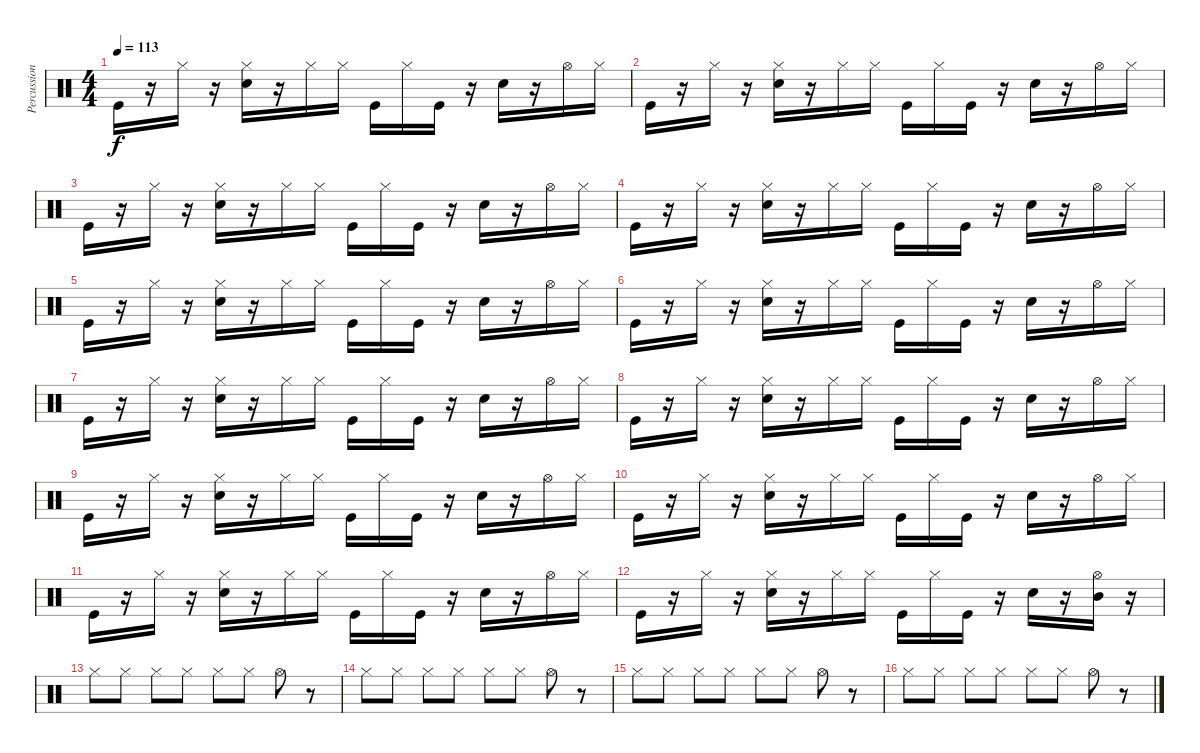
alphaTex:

\track ("Percussioni" "Percussion") {instrument percussion}
\staff {score}
\articulation defaults
\ts (4 4)
\tempo 113
\clef neutral
\ks c "Kick (hit)".16{dy f}
r.16 "Hi-Hat (closed)".16 r.16 ("Hi-Hat (closed)" "Electric Snare (hit)").16 r.16 "Hi-Hat (closed)".16 "Hi-Hat (closed)".16 "Kick (hit)".16 "Hi-Hat (closed)".16 "Kick (hit)".16 r.16 "Electric Snare (hit)".16 r.16 "Hi-Hat (open)".16 "Hi-Hat (closed)".16 |
"Kick (hit)".16 r.16 "Hi-Hat (closed)".16 r.16 ("Hi-Hat (closed)" "Electric Snare (hit)").16 r.16 "Hi-Hat (closed)".16 "Hi-Hat (closed)".16 "Kick (hit)".16 "Hi-Hat (closed)".16 "Kick (hit)".16 r.16 "Electric Snare (hit)".16 r.16 "Hi-Hat (open)".16 "Hi-Hat (closed)".16 |
"Kick (hit)".16 r.16 "Hi-Hat (closed)".16 r.16 ("Hi-Hat (closed)" "Electric Snare (hit)").16 r.16 "Hi-Hat (closed)".16 "Hi-Hat (closed)".16 "Kick (hit)".16 "Hi-Hat (closed)".16 "Kick (hit)".16 r.16 "Electric Snare (hit)".16 r.16 "Hi-Hat (open)".16 "Hi-Hat (closed)".16 |
"Kick (hit)".16 r.16 "Hi-Hat (closed)".16 r.16 ("Hi-Hat (closed)" "Electric Snare (hit)").16 r.16 "Hi-Hat (closed)".16 "Hi-Hat (closed)".16 "Kick (hit)".16 "Hi-Hat (closed)".16 "Kick (hit)".16 r.16 "Electric Snare (hit)".16 r.16 "Hi-Hat (open)".16 "Hi-Hat (closed)".16 |
"Kick (hit)".16 r.16 "Hi-Hat (closed)".16 r.16 ("Hi-Hat (closed)" "Electric Snare (hit)").16 r.16 "Hi-Hat (closed)".16 "Hi-Hat (closed)".16 "Kick (hit)".16 "Hi-Hat (closed)".16 "Kick (hit)".16 r.16 "Electric Snare (hit)".16 r.16 "Hi-Hat (open)".16 "Hi-Hat (closed)".16 |
"Kick (hit)".16 r.16 "Hi-Hat (closed)".16 r.16 ("Hi-Hat (closed)" "Electric Snare (hit)").16 r.16 "Hi-Hat (closed)".16 "Hi-Hat (closed)".16 "Kick (hit)".16 "Hi-Hat (closed)".16 "Kick (hit)".16 r.16 "Electric Snare (hit)".16 r.16 "Hi-Hat (open)".16 "Hi-Hat (closed)".16 |
"Kick (hit)".16 r.16 "Hi-Hat (closed)".16 r.16 ("Hi-Hat (closed)" "Electric Snare (hit)").16 r.16 "Hi-Hat (closed)".16 "Hi-Hat (closed)".16 "Kick (hit)".16 "Hi-Hat (closed)".16 "Kick (hit)".16 r.16 "Electric Snare (hit)".16 r.16 "Hi-Hat (open)".16 "Hi-Hat (closed)".16 |
"Kick (hit)".16 r.16 "Hi-Hat (closed)".16 r.16 ("Hi-Hat (closed)" "Electric Snare (hit)").16 r.16 "Hi-Hat (closed)".16 "Hi-Hat (closed)".16 "Kick (hit)".16 "Hi-Hat (closed)".16 "Kick (hit)".16 r.16 "Electric Snare (hit)".16 r.16 "Hi-Hat (open)".16 "Hi-Hat (closed)".16 |
"Kick (hit)".16 r.16 "Hi-Hat (closed)".16 r.16 ("Hi-Hat (closed)" "Electric Snare (hit)").16 r.16 "Hi-Hat (closed)".16 "Hi-Hat (closed)".16 "Kick (hit)".16 "Hi-Hat (closed)".16 "Kick (hit)".16 r.16 "Electric Snare (hit)".16 r.16 "Hi-Hat (open)".16 "Hi-Hat (closed)".16 |
"Kick (hit)".16 r.16 "Hi-Hat (closed)".16 r.16 ("Hi-Hat (closed)" "Electric Snare (hit)").16 r.16 "Hi-Hat (closed)".16 "Hi-Hat (closed)".16 "Kick (hit)".16 "Hi-Hat (closed)".16 "Kick (hit)".16 r.16 "Electric Snare (hit)".16 r.16 "Hi-Hat (open)".16 "Hi-Hat (closed)".16 |
"Kick (hit)".16 r.16 "Hi-Hat (closed)".16 r.16 ("Hi-Hat (closed)" "Electric Snare (hit)").16 r.16 "Hi-Hat (closed)".16 "Hi-Hat (closed)".16 "Kick (hit)".16 "Hi-Hat (closed)".16 "Kick (hit)".16 r.16 "Electric Snare (hit)".16 r.16 "Hi-Hat (open)".16 "Hi-Hat (closed)".16 |
"Kick (hit)".16 r.16 "Hi-Hat (closed)".16 r.16 ("Hi-Hat (closed)" "Electric Snare (hit)").16 r.16 "Hi-Hat (closed)".16 "Hi-Hat (closed)".16 "Kick (hit)".16 "Hi-Hat (closed)".16 "Kick (hit)".16 r.16 "Electric Snare (hit)".16 r.16 ("Hi-Hat (open)" "Mid Tom (hit)").16 r.16 |
"Hi-Hat (closed)".8 "Hi-Hat (closed)".8 "Hi-Hat (closed)".8 "Hi-Hat (closed)".8 "Hi-Hat (closed)".8 "Hi-Hat (closed)".8 "Hi-Hat (open)".8 r.8 |
"Hi-Hat (closed)".8 "Hi-Hat (closed)".8 "Hi-Hat (closed)".8 "Hi-Hat (closed)".8 "Hi-Hat (closed)".8 "Hi-Hat (closed)".8 "Hi-Hat (open)".8 r.8 |
"Hi-Hat (closed)".8 "Hi-Hat (closed)".8 "Hi-Hat (closed)".8 "Hi-Hat (closed)".8 "Hi-Hat (closed)".8 "Hi-Hat (closed)".8 "Hi-Hat (open)".8 r.8 |
"Hi-Hat (closed)".8 "Hi-Hat (closed)".8 "Hi-Hat (closed)".8 "Hi-Hat (closed)".8 "Hi-Hat (closed)".8 "Hi-Hat (closed)".8 "Hi-Hat (open)".8 r.8
